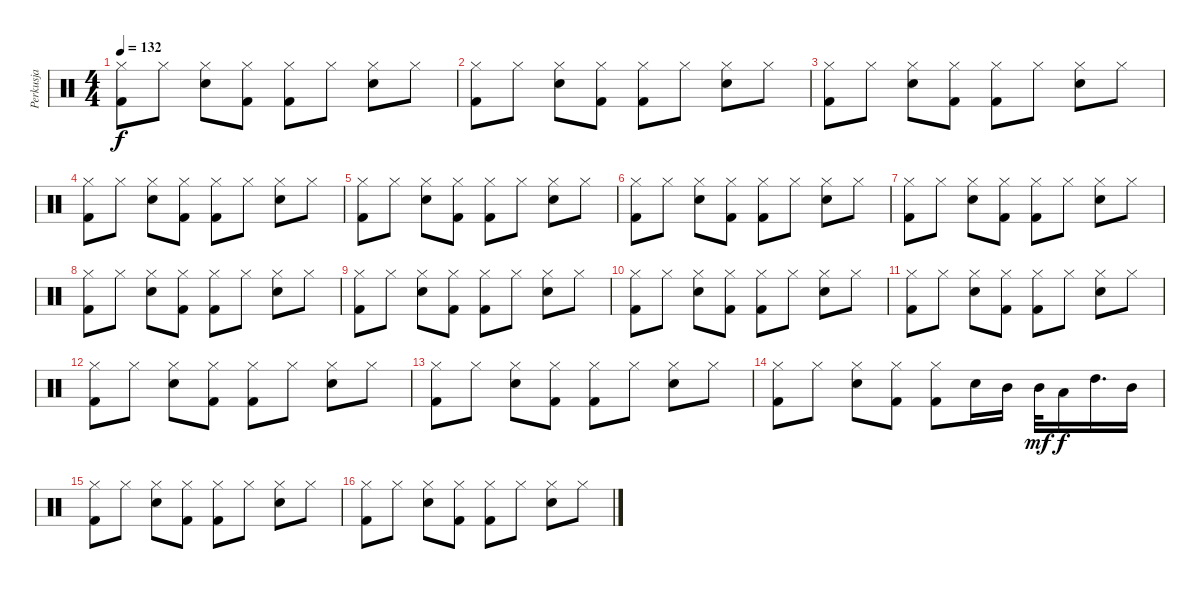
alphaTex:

\track ("Perkusja" "Perkusja") {instrument percussion}
\staff {score}
\articulation defaults
\ts (4 4)
\tempo 132
\clef neutral
\ks c
("Kick (hit) 2" "Hi-Hat (closed)").8{dy f} "Hi-Hat (closed)".8 ("Snare (hit) 2" "Hi-Hat (closed)").8 ("Kick (hit) 2" "Hi-Hat (closed)").8 ("Kick (hit) 2" "Hi-Hat (closed)").8 "Hi-Hat (closed)".8 ("Snare (hit) 2" "Hi-Hat (closed)").8 "Hi-Hat (closed)".8 |
("Kick (hit) 2" "Hi-Hat (closed)").8 "Hi-Hat (closed)".8 ("Snare (hit) 2" "Hi-Hat (closed)").8 ("Kick (hit) 2" "Hi-Hat (closed)").8 ("Kick (hit) 2" "Hi-Hat (closed)").8 "Hi-Hat (closed)".8 ("Snare (hit) 2" "Hi-Hat (closed)").8 "Hi-Hat (closed)".8 |
("Kick (hit) 2" "Hi-Hat (closed)").8 "Hi-Hat (closed)".8 ("Snare (hit) 2" "Hi-Hat (closed)").8 ("Kick (hit) 2" "Hi-Hat (closed)").8 ("Kick (hit) 2" "Hi-Hat (closed)").8 "Hi-Hat (closed)".8 ("Snare (hit) 2" "Hi-Hat (closed)").8 "Hi-Hat (closed)".8 |
("Kick (hit) 2" "Hi-Hat (closed)").8 "Hi-Hat (closed)".8 ("Snare (hit) 2" "Hi-Hat (closed)").8 ("Kick (hit) 2" "Hi-Hat (closed)").8 ("Kick (hit) 2" "Hi-Hat (closed)").8 "Hi-Hat (closed)".8 ("Snare (hit) 2" "Hi-Hat (closed)").8 "Hi-Hat (closed)".8 |
("Kick (hit) 2" "Hi-Hat (closed)").8 "Hi-Hat (closed)".8 ("Snare (hit) 2" "Hi-Hat (closed)").8 ("Kick (hit) 2" "Hi-Hat (closed)").8 ("Kick (hit) 2" "Hi-Hat (closed)").8 "Hi-Hat (closed)".8 ("Snare (hit) 2" "Hi-Hat (closed)").8 "Hi-Hat (closed)".8 |
("Kick (hit) 2" "Hi-Hat (closed)").8 "Hi-Hat (closed)".8 ("Snare (hit) 2" "Hi-Hat (closed)").8 ("Kick (hit) 2" "Hi-Hat (closed)").8 ("Kick (hit) 2" "Hi-Hat (closed)").8 "Hi-Hat (closed)".8 ("Snare (hit) 2" "Hi-Hat (closed)").8 "Hi-Hat (closed)".8 |
("Kick (hit) 2" "Hi-Hat (closed)").8 "Hi-Hat (closed)".8 ("Snare (hit) 2" "Hi-Hat (closed)").8 ("Kick (hit) 2" "Hi-Hat (closed)").8 ("Kick (hit) 2" "Hi-Hat (closed)").8 "Hi-Hat (closed)".8 ("Snare (hit) 2" "Hi-Hat (closed)").8 "Hi-Hat (closed)".8 |
("Kick (hit) 2" "Hi-Hat (closed)").8 "Hi-Hat (closed)".8 ("Snare (hit) 2" "Hi-Hat (closed)").8 ("Kick (hit) 2" "Hi-Hat (closed)").8 ("Kick (hit) 2" "Hi-Hat (closed)").8 "Hi-Hat (closed)".8 ("Snare (hit) 2" "Hi-Hat (closed)").8 "Hi-Hat (closed)".8 |
("Kick (hit) 2" "Hi-Hat (closed)").8 "Hi-Hat (closed)".8 ("Snare (hit) 2" "Hi-Hat (closed)").8 ("Kick (hit) 2" "Hi-Hat (closed)").8 ("Kick (hit) 2" "Hi-Hat (closed)").8 "Hi-Hat (closed)".8 ("Snare (hit) 2" "Hi-Hat (closed)").8 "Hi-Hat (closed)".8 |
("Kick (hit) 2" "Hi-Hat (closed)").8 "Hi-Hat (closed)".8 ("Snare (hit) 2" "Hi-Hat (closed)").8 ("Kick (hit) 2" "Hi-Hat (closed)").8 ("Kick (hit) 2" "Hi-Hat (closed)").8 "Hi-Hat (closed)".8 ("Snare (hit) 2" "Hi-Hat (closed)").8 "Hi-Hat (closed)".8 |
("Kick (hit) 2" "Hi-Hat (closed)").8 "Hi-Hat (closed)".8 ("Snare (hit) 2" "Hi-Hat (closed)").8 ("Kick (hit) 2" "Hi-Hat (closed)").8 ("Kick (hit) 2" "Hi-Hat (closed)").8 "Hi-Hat (closed)".8 ("Snare (hit) 2" "Hi-Hat (closed)").8 "Hi-Hat (closed)".8 |
("Kick (hit) 2" "Hi-Hat (closed)").8 "Hi-Hat (closed)".8 ("Snare (hit) 2" "Hi-Hat (closed)").8 ("Kick (hit) 2" "Hi-Hat (closed)").8 ("Kick (hit) 2" "Hi-Hat (closed)").8 "Hi-Hat (closed)".8 ("Snare (hit) 2" "Hi-Hat (closed)").8 "Hi-Hat (closed)".8 |
("Kick (hit) 2" "Hi-Hat (closed)").8 "Hi-Hat (closed)".8 ("Snare (hit) 2" "Hi-Hat (closed)").8 ("Kick (hit) 2" "Hi-Hat (closed)").8 ("Kick (hit) 2" "Hi-Hat (closed)").8 "Hi-Hat (closed)".8 ("Snare (hit) 2" "Hi-Hat (closed)").8 "Hi-Hat (closed)".8 |
("Kick (hit) 2" "Hi-Hat (closed)").8 "Hi-Hat (closed)".8 ("Snare (hit) 2" "Hi-Hat (closed)").8 ("Kick (hit) 2" "Hi-Hat (closed)").8 ("Kick (hit) 2" "Hi-Hat (closed)").8 "Snare (hit) 2".16 "Mid Tom (hit)".16 "Mid Tom (hit)".32{dy mf} "Low Tom (hit)".16{dy f} "High Tom (hit)".16{d} "Mid Tom (hit)".16 |
("Kick (hit) 2" "Hi-Hat (closed)").8 "Hi-Hat (closed)".8 ("Snare (hit) 2" "Hi-Hat (closed)").8 ("Kick (hit) 2" "Hi-Hat (closed)").8 ("Kick (hit) 2" "Hi-Hat (closed)").8 "Hi-Hat (closed)".8 ("Snare (hit) 2" "Hi-Hat (closed)").8 "Hi-Hat (closed)".8 |
("Kick (hit) 2" "Hi-Hat (closed)").8 "Hi-Hat (closed)".8 ("Snare (hit) 2" "Hi-Hat (closed)").8 ("Kick (hit) 2" "Hi-Hat (closed)").8 ("Kick (hit) 2" "Hi-Hat (closed)").8 "Hi-Hat (closed)".8 ("Snare (hit) 2" "Hi-Hat (closed)").8 "Hi-Hat (closed)".8
